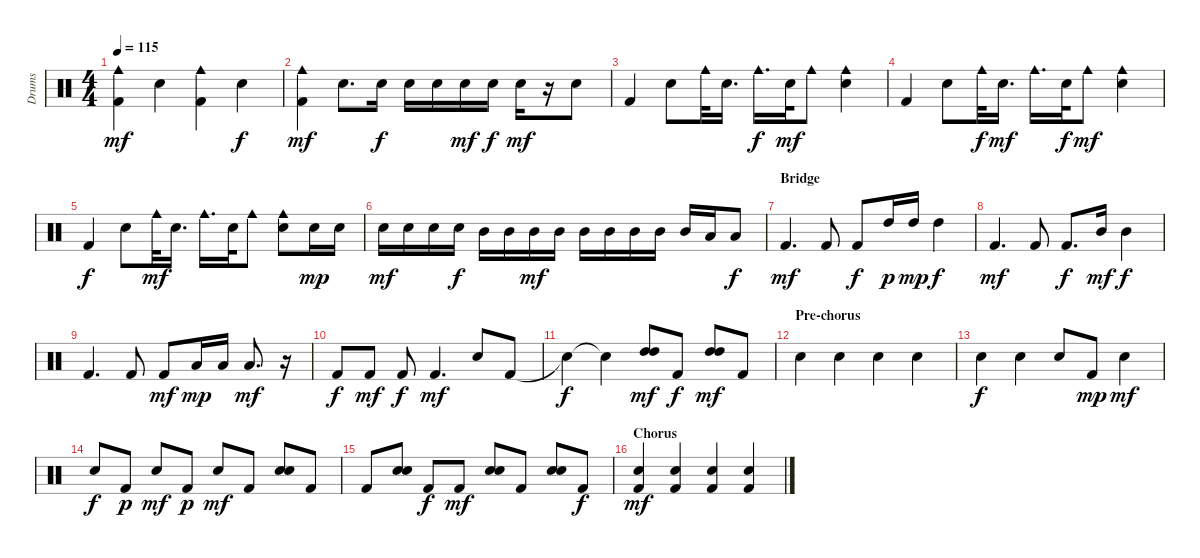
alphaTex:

\track ("Drums" "Drums") {instrument percussion}
\staff {score}
\articulation defaults
\ts (4 4)
\tempo 115
\clef neutral
\ks c
("Cowbell medium (hit)" "Kick (hit) 2").4{dy mf} "Electric Snare (hit)".4 ("Cowbell medium (hit)" "Kick (hit) 2").4 "Electric Snare (hit)".4{dy f} |
("Kick (hit) 2" "Cowbell medium (hit)").4{dy mf} "Electric Snare (hit)".8{d} "Electric Snare (hit)".16{dy f} "Electric Snare (hit)".16 "Electric Snare (hit)".16 "Electric Snare (hit)".16{dy mf} "Electric Snare (hit)".16{dy f} "Electric Snare (hit)".16{dy mf} r.16 "Electric Snare (hit)".8 |
"Kick (hit) 2".4 "Electric Snare (hit)".8 "Cowbell medium (hit)".32 "Electric Snare (hit)".16{d} "Cowbell medium (hit)".16{d dy f} "Electric Snare (hit)".32{dy mf} "Cowbell medium (hit)".8 ("Cowbell medium (hit)" "Electric Snare (hit)").4 |
"Kick (hit) 2".4 "Electric Snare (hit)".8 "Cowbell medium (hit)".32{dy f} "Electric Snare (hit)".16{d dy mf} "Cowbell medium (hit)".16{d} "Electric Snare (hit)".32{dy f} "Cowbell medium (hit)".8{dy mf} ("Cowbell medium (hit)" "Electric Snare (hit)").4 |
"Kick (hit) 2".4{dy f} "Electric Snare (hit)".8 "Cowbell medium (hit)".32{dy mf} "Electric Snare (hit)".16{d} "Cowbell medium (hit)".16{d} "Electric Snare (hit)".32 "Cowbell medium (hit)".8 ("Cowbell medium (hit)" "Electric Snare (hit)").8 "Electric Snare (hit)".16{dy mp} "Electric Snare (hit)".16 |
"Electric Snare (hit)".16{dy mf} "Electric Snare (hit)".16 "Electric Snare (hit)".16 "Electric Snare (hit)".16{dy f} "Mid Tom (hit)".16 "Mid Tom (hit)".16 "Mid Tom (hit)".16{dy mf} "Mid Tom (hit)".16 "Mid Tom (hit)".16 "Mid Tom (hit)".16 "Mid Tom (hit)".16 "Mid Tom (hit)".16 "Mid Tom (hit)".16 "Low Tom (hit)".16 "Low Tom (hit)".8{dy f} |
\section ("" "Bridge")
"Kick (hit) 2".4{d dy mf} "Kick (hit) 2".8 "Kick (hit) 2".8{dy f} "High Tom (hit)".16{dy p} "High Tom (hit)".16{dy mp} "High Tom (hit)".4{dy f} |
"Kick (hit) 2".4{d dy mf} "Kick (hit) 2".8 "Kick (hit) 2".8{d dy f} "Mid Tom (hit)".16{dy mf} "Mid Tom (hit)".4{dy f} |
"Kick (hit) 2".4{d} "Kick (hit) 2".8 "Kick (hit) 2".8{dy mf} "Low Tom (hit)".16{dy mp} "Low Tom (hit)".16 "Low Tom (hit)".8{d dy mf} r.16 |
"Kick (hit) 2".8{dy f} "Kick (hit) 2".8{dy mf} "Kick (hit) 2".8{dy f} "Kick (hit) 2".4{d dy mf} "Electric Snare (hit)".8 "Kick (hit) 2".8 |
"Snare (hit)"{t}.4{dy f} "Snare (hit)"{t}.4 ("High Tom (hit)" "High Tom (hit)").8{dy mf} "Kick (hit) 2".8{dy f} ("High Tom (hit)" "High Tom (hit)").8{dy mf} "Kick (hit) 2".8 |
\section ("" "Pre-chorus")
"Electric Snare (hit)".4 "Electric Snare (hit)".4 "Electric Snare (hit)".4 "Electric Snare (hit)".4 |
"Electric Snare (hit)".4{dy f} "Electric Snare (hit)".4 "Electric Snare (hit)".8 "Kick (hit) 2".8{dy mp} "Electric Snare (hit)".4{dy mf} |
"Electric Snare (hit)".8{dy f} "Kick (hit) 2".8{dy p} "Electric Snare (hit)".8{dy mf} "Kick (hit) 2".8{dy p} "Electric Snare (hit)".8{dy mf} "Kick (hit) 2".8 ("Electric Snare (hit)" "Electric Snare (hit)").8 "Kick (hit) 2".8 |
"Kick (hit) 2".8 ("Electric Snare (hit)" "Electric Snare (hit)").8 "Kick (hit) 2".8{dy f} "Kick (hit) 2".8{dy mf} ("Electric Snare (hit)" "Electric Snare (hit)").8 "Kick (hit) 2".8 ("Electric Snare (hit)" "Electric Snare (hit)").8 "Kick (hit) 2".8{dy f} |
\section ("" "Chorus")
("Kick (hit) 2" "Electric Snare (hit)").4{dy mf} ("Kick (hit) 2" "Electric Snare (hit)").4 ("Kick (hit) 2" "Electric Snare (hit)").4 ("Kick (hit) 2" "Electric Snare (hit)").4
